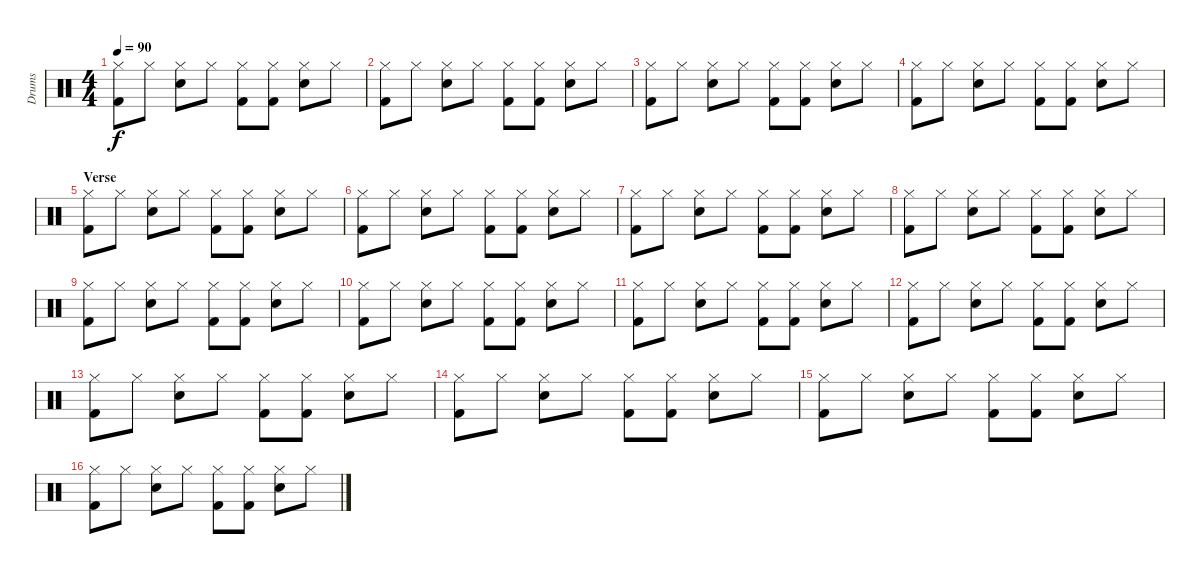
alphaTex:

\track ("Drums" "Drums") {instrument percussion}
\staff {score}
\articulation defaults
\ts (4 4)
\tempo 90
\clef neutral
\ks c
("Hi-Hat (closed)" "Kick (hit) 2").8{dy f} "Hi-Hat (closed)".8 ("Hi-Hat (closed)" "Electric Snare (hit)").8 "Hi-Hat (closed)".8 ("Hi-Hat (closed)" "Kick (hit) 2").8 ("Hi-Hat (closed)" "Kick (hit) 2").8 ("Hi-Hat (closed)" "Electric Snare (hit)").8 "Hi-Hat (closed)".8 |
("Hi-Hat (closed)" "Kick (hit) 2").8 "Hi-Hat (closed)".8 ("Hi-Hat (closed)" "Electric Snare (hit)").8 "Hi-Hat (closed)".8 ("Hi-Hat (closed)" "Kick (hit) 2").8 ("Hi-Hat (closed)" "Kick (hit) 2").8 ("Hi-Hat (closed)" "Electric Snare (hit)").8 "Hi-Hat (closed)".8 |
("Hi-Hat (closed)" "Kick (hit) 2").8 "Hi-Hat (closed)".8 ("Hi-Hat (closed)" "Electric Snare (hit)").8 "Hi-Hat (closed)".8 ("Hi-Hat (closed)" "Kick (hit) 2").8 ("Hi-Hat (closed)" "Kick (hit) 2").8 ("Hi-Hat (closed)" "Electric Snare (hit)").8 "Hi-Hat (closed)".8 |
("Hi-Hat (closed)" "Kick (hit) 2").8 "Hi-Hat (closed)".8 ("Hi-Hat (closed)" "Electric Snare (hit)").8 "Hi-Hat (closed)".8 ("Hi-Hat (closed)" "Kick (hit) 2").8 ("Hi-Hat (closed)" "Kick (hit) 2").8 ("Hi-Hat (closed)" "Electric Snare (hit)").8 "Hi-Hat (closed)".8 |
\section ("" "Verse")
("Hi-Hat (closed)" "Kick (hit) 2").8 "Hi-Hat (closed)".8 ("Hi-Hat (closed)" "Electric Snare (hit)").8 "Hi-Hat (closed)".8 ("Hi-Hat (closed)" "Kick (hit) 2").8 ("Hi-Hat (closed)" "Kick (hit) 2").8 ("Hi-Hat (closed)" "Electric Snare (hit)").8 "Hi-Hat (closed)".8 |
("Hi-Hat (closed)" "Kick (hit) 2").8 "Hi-Hat (closed)".8 ("Hi-Hat (closed)" "Electric Snare (hit)").8 "Hi-Hat (closed)".8 ("Hi-Hat (closed)" "Kick (hit) 2").8 ("Hi-Hat (closed)" "Kick (hit) 2").8 ("Hi-Hat (closed)" "Electric Snare (hit)").8 "Hi-Hat (closed)".8 |
("Hi-Hat (closed)" "Kick (hit) 2").8 "Hi-Hat (closed)".8 ("Hi-Hat (closed)" "Electric Snare (hit)").8 "Hi-Hat (closed)".8 ("Hi-Hat (closed)" "Kick (hit) 2").8 ("Hi-Hat (closed)" "Kick (hit) 2").8 ("Hi-Hat (closed)" "Electric Snare (hit)").8 "Hi-Hat (closed)".8 |
("Hi-Hat (closed)" "Kick (hit) 2").8 "Hi-Hat (closed)".8 ("Hi-Hat (closed)" "Electric Snare (hit)").8 "Hi-Hat (closed)".8 ("Hi-Hat (closed)" "Kick (hit) 2").8 ("Hi-Hat (closed)" "Kick (hit) 2").8 ("Hi-Hat (closed)" "Electric Snare (hit)").8 "Hi-Hat (closed)".8 |
("Hi-Hat (closed)" "Kick (hit) 2").8 "Hi-Hat (closed)".8 ("Hi-Hat (closed)" "Electric Snare (hit)").8 "Hi-Hat (closed)".8 ("Hi-Hat (closed)" "Kick (hit) 2").8 ("Hi-Hat (closed)" "Kick (hit) 2").8 ("Hi-Hat (closed)" "Electric Snare (hit)").8 "Hi-Hat (closed)".8 |
("Hi-Hat (closed)" "Kick (hit) 2").8 "Hi-Hat (closed)".8 ("Hi-Hat (closed)" "Electric Snare (hit)").8 "Hi-Hat (closed)".8 ("Hi-Hat (closed)" "Kick (hit) 2").8 ("Hi-Hat (closed)" "Kick (hit) 2").8 ("Hi-Hat (closed)" "Electric Snare (hit)").8 "Hi-Hat (closed)".8 |
("Hi-Hat (closed)" "Kick (hit) 2").8 "Hi-Hat (closed)".8 ("Hi-Hat (closed)" "Electric Snare (hit)").8 "Hi-Hat (closed)".8 ("Hi-Hat (closed)" "Kick (hit) 2").8 ("Hi-Hat (closed)" "Kick (hit) 2").8 ("Hi-Hat (closed)" "Electric Snare (hit)").8 "Hi-Hat (closed)".8 |
("Hi-Hat (closed)" "Kick (hit) 2").8 "Hi-Hat (closed)".8 ("Hi-Hat (closed)" "Electric Snare (hit)").8 "Hi-Hat (closed)".8 ("Hi-Hat (closed)" "Kick (hit) 2").8 ("Hi-Hat (closed)" "Kick (hit) 2").8 ("Hi-Hat (closed)" "Electric Snare (hit)").8 "Hi-Hat (closed)".8 |
("Hi-Hat (closed)" "Kick (hit) 2").8 "Hi-Hat (closed)".8 ("Hi-Hat (closed)" "Electric Snare (hit)").8 "Hi-Hat (closed)".8 ("Hi-Hat (closed)" "Kick (hit) 2").8 ("Hi-Hat (closed)" "Kick (hit) 2").8 ("Hi-Hat (closed)" "Electric Snare (hit)").8 "Hi-Hat (closed)".8 |
("Hi-Hat (closed)" "Kick (hit) 2").8 "Hi-Hat (closed)".8 ("Hi-Hat (closed)" "Electric Snare (hit)").8 "Hi-Hat (closed)".8 ("Hi-Hat (closed)" "Kick (hit) 2").8 ("Hi-Hat (closed)" "Kick (hit) 2").8 ("Hi-Hat (closed)" "Electric Snare (hit)").8 "Hi-Hat (closed)".8 |
("Hi-Hat (closed)" "Kick (hit) 2").8 "Hi-Hat (closed)".8 ("Hi-Hat (closed)" "Electric Snare (hit)").8 "Hi-Hat (closed)".8 ("Hi-Hat (closed)" "Kick (hit) 2").8 ("Hi-Hat (closed)" "Kick (hit) 2").8 ("Hi-Hat (closed)" "Electric Snare (hit)").8 "Hi-Hat (closed)".8 |
("Hi-Hat (closed)" "Kick (hit) 2").8 "Hi-Hat (closed)".8 ("Hi-Hat (closed)" "Electric Snare (hit)").8 "Hi-Hat (closed)".8 ("Hi-Hat (closed)" "Kick (hit) 2").8 ("Hi-Hat (closed)" "Kick (hit) 2").8 ("Hi-Hat (closed)" "Electric Snare (hit)").8 "Hi-Hat (closed)".8
